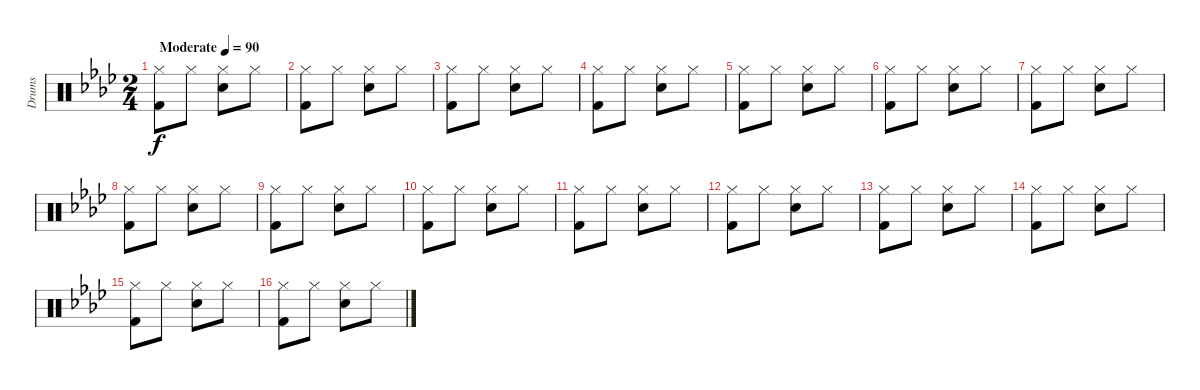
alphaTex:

\track ("Drums" "Drums") {instrument percussion}
\staff {score}
\articulation defaults
\ts (2 4)
\tempo (90 "Moderate")
\clef neutral
\ks fminor
("Hi-Hat (closed)" "Kick (hit) 2").8{dy f} "Hi-Hat (closed)".8 ("Hi-Hat (closed)" "Electric Snare (hit)").8 "Hi-Hat (closed)".8 |
("Hi-Hat (closed)" "Kick (hit) 2").8 "Hi-Hat (closed)".8 ("Hi-Hat (closed)" "Electric Snare (hit)").8 "Hi-Hat (closed)".8 |
("Hi-Hat (closed)" "Kick (hit) 2").8 "Hi-Hat (closed)".8 ("Hi-Hat (closed)" "Electric Snare (hit)").8 "Hi-Hat (closed)".8 |
("Hi-Hat (closed)" "Kick (hit) 2").8 "Hi-Hat (closed)".8 ("Hi-Hat (closed)" "Electric Snare (hit)").8 "Hi-Hat (closed)".8 |
("Hi-Hat (closed)" "Kick (hit) 2").8 "Hi-Hat (closed)".8 ("Hi-Hat (closed)" "Electric Snare (hit)").8 "Hi-Hat (closed)".8 |
("Hi-Hat (closed)" "Kick (hit) 2").8 "Hi-Hat (closed)".8 ("Hi-Hat (closed)" "Electric Snare (hit)").8 "Hi-Hat (closed)".8 |
("Hi-Hat (closed)" "Kick (hit) 2").8 "Hi-Hat (closed)".8 ("Hi-Hat (closed)" "Electric Snare (hit)").8 "Hi-Hat (closed)".8 |
("Hi-Hat (closed)" "Kick (hit) 2").8 "Hi-Hat (closed)".8 ("Hi-Hat (closed)" "Electric Snare (hit)").8 "Hi-Hat (closed)".8 |
("Hi-Hat (closed)" "Kick (hit) 2").8 "Hi-Hat (closed)".8 ("Hi-Hat (closed)" "Electric Snare (hit)").8 "Hi-Hat (closed)".8 |
("Hi-Hat (closed)" "Kick (hit) 2").8 "Hi-Hat (closed)".8 ("Hi-Hat (closed)" "Electric Snare (hit)").8 "Hi-Hat (closed)".8 |
("Hi-Hat (closed)" "Kick (hit) 2").8 "Hi-Hat (closed)".8 ("Hi-Hat (closed)" "Electric Snare (hit)").8 "Hi-Hat (closed)".8 |
("Hi-Hat (closed)" "Kick (hit) 2").8 "Hi-Hat (closed)".8 ("Hi-Hat (closed)" "Electric Snare (hit)").8 "Hi-Hat (closed)".8 |
("Hi-Hat (closed)" "Kick (hit) 2").8 "Hi-Hat (closed)".8 ("Hi-Hat (closed)" "Electric Snare (hit)").8 "Hi-Hat (closed)".8 |
("Hi-Hat (closed)" "Kick (hit) 2").8 "Hi-Hat (closed)".8 ("Hi-Hat (closed)" "Electric Snare (hit)").8 "Hi-Hat (closed)".8 |
("Hi-Hat (closed)" "Kick (hit) 2").8 "Hi-Hat (closed)".8 ("Hi-Hat (closed)" "Electric Snare (hit)").8 "Hi-Hat (closed)".8 |
("Hi-Hat (closed)" "Kick (hit) 2").8 "Hi-Hat (closed)".8 ("Hi-Hat (closed)" "Electric Snare (hit)").8 "Hi-Hat (closed)".8
